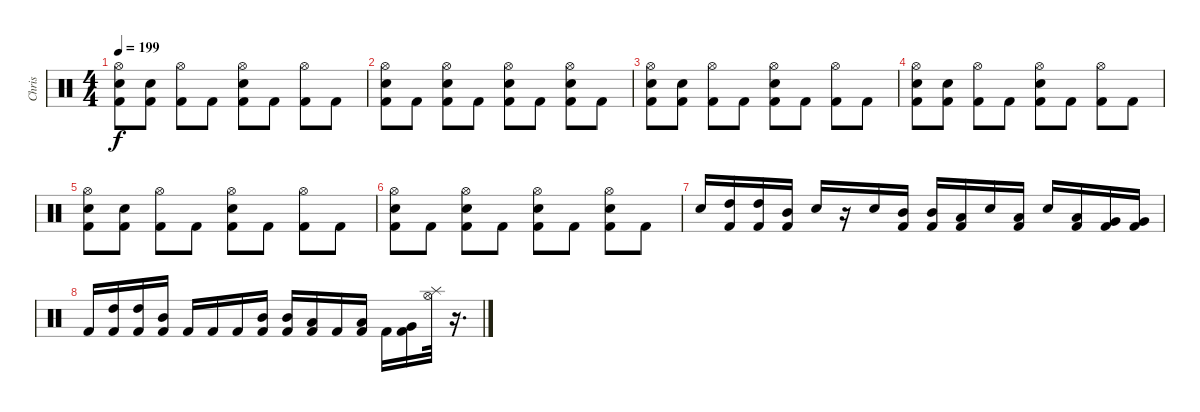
\track ("Chris" "Chris") {instrument percussion}
\staff {score}
\articulation defaults
\ts (4 4)
\tempo 199
\clef neutral
\ks c
("Hi-Hat (open)" "Kick (hit) 2" "Electric Snare (hit)").8{dy f} ("Kick (hit) 2" "Electric Snare (hit)").8 ("Hi-Hat (open)" "Kick (hit) 2").8 "Kick (hit) 2".8 ("Hi-Hat (open)" "Kick (hit) 2" "Electric Snare (hit)").8 "Kick (hit) 2".8 ("Hi-Hat (open)" "Kick (hit) 2").8 "Kick (hit) 2".8 |
("Hi-Hat (open)" "Kick (hit) 2" "Electric Snare (hit)").8 "Kick (hit) 2".8 ("Hi-Hat (open)" "Kick (hit) 2" "Electric Snare (hit)").8 "Kick (hit) 2".8 ("Hi-Hat (open)" "Kick (hit) 2" "Electric Snare (hit)").8 "Kick (hit) 2".8 ("Hi-Hat (open)" "Kick (hit) 2" "Electric Snare (hit)").8 "Kick (hit) 2".8 |
("Hi-Hat (open)" "Kick (hit) 2" "Electric Snare (hit)").8 ("Kick (hit) 2" "Electric Snare (hit)").8 ("Hi-Hat (open)" "Kick (hit) 2").8 "Kick (hit) 2".8 ("Hi-Hat (open)" "Kick (hit) 2" "Electric Snare (hit)").8 "Kick (hit) 2".8 ("Hi-Hat (open)" "Kick (hit) 2").8 "Kick (hit) 2".8 |
("Hi-Hat (open)" "Kick (hit) 2" "Electric Snare (hit)").8 ("Kick (hit) 2" "Electric Snare (hit)").8 ("Hi-Hat (open)" "Kick (hit) 2").8 "Kick (hit) 2".8 ("Hi-Hat (open)" "Kick (hit) 2" "Electric Snare (hit)").8 "Kick (hit) 2".8 ("Hi-Hat (open)" "Kick (hit) 2").8 "Kick (hit) 2".8 |
("Hi-Hat (open)" "Kick (hit) 2" "Electric Snare (hit)").8 ("Kick (hit) 2" "Electric Snare (hit)").8 ("Hi-Hat (open)" "Kick (hit) 2").8 "Kick (hit) 2".8 ("Hi-Hat (open)" "Kick (hit) 2" "Electric Snare (hit)").8 "Kick (hit) 2".8 ("Hi-Hat (open)" "Kick (hit) 2").8 "Kick (hit) 2".8 |
("Hi-Hat (open)" "Kick (hit) 2" "Electric Snare (hit)").8 "Kick (hit) 2".8 ("Hi-Hat (open)" "Kick (hit) 2" "Electric Snare (hit)").8 "Kick (hit) 2".8 ("Hi-Hat (open)" "Kick (hit) 2" "Electric Snare (hit)").8 "Kick (hit) 2".8 ("Hi-Hat (open)" "Kick (hit) 2" "Electric Snare (hit)").8 "Kick (hit) 2".8 |
"Electric Snare (hit)".16 ("High Tom (hit)" "Kick (hit) 2").16 ("High Tom (hit)" "Kick (hit) 2").16 ("Mid Tom (hit)" "Kick (hit) 2").16 "Electric Snare (hit)".16 r.16 "Electric Snare (hit)".16 ("Mid Tom (hit)" "Kick (hit) 2").16 ("Mid Tom (hit)" "Kick (hit) 2").16 ("Low Tom (hit)" "Kick (hit) 2").16 "Electric Snare (hit)".16 ("Low Tom (hit)" "Kick (hit) 2").16 "Electric Snare (hit)".16 ("Low Tom (hit)" "Kick (hit) 2").16 ("Very Low Tom (hit)" "Kick (hit) 2").16 ("Very Low Tom (hit)" "Kick (hit) 2").16 |
"Kick (hit) 2".16 ("High Tom (hit)" "Kick (hit) 2").16 ("High Tom (hit)" "Kick (hit) 2").16 ("Mid Tom (hit)" "Kick (hit) 2").16 "Kick (hit) 2".16 "Kick (hit) 2".16 "Kick (hit) 2".16 ("Mid Tom (hit)" "Kick (hit) 2").16 ("Mid Tom (hit)" "Kick (hit) 2").16 ("Low Tom (hit)" "Kick (hit) 2").16 "Kick (hit) 2".16 ("Low Tom (hit)" "Kick (hit) 2").16 "Kick (hit) 2".16 ("Very Low Tom (hit)" "Kick (hit) 2").16 ("Hi-Hat (open)" "Splash (hit)").32 r.16{d}
